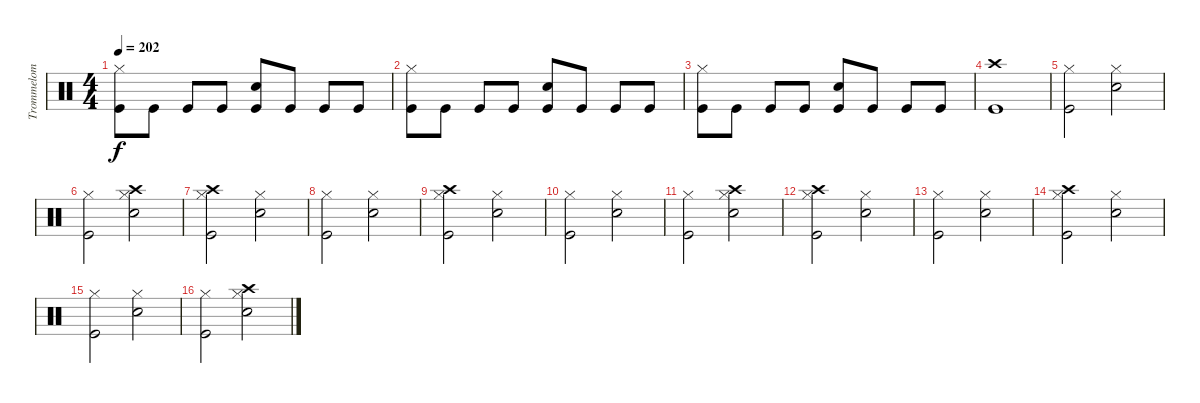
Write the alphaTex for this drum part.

\track ("Trommelom" "Trommelom") {instrument percussion}
\staff {score}
\articulation defaults
\ts (4 4)
\tempo 202
\clef neutral
\ks c
("Hi-Hat (closed)" "Kick (hit)").8{dy f} "Kick (hit)".8 "Kick (hit)".8 "Kick (hit)".8 ("Electric Snare (hit)" "Kick (hit)").8 "Kick (hit)".8 "Kick (hit)".8 "Kick (hit)".8 |
("Hi-Hat (closed)" "Kick (hit)").8 "Kick (hit)".8 "Kick (hit)".8 "Kick (hit)".8 ("Electric Snare (hit)" "Kick (hit)").8 "Kick (hit)".8 "Kick (hit)".8 "Kick (hit)".8 |
("Hi-Hat (closed)" "Kick (hit)").8 "Kick (hit)".8 "Kick (hit)".8 "Kick (hit)".8 ("Electric Snare (hit)" "Kick (hit)").8 "Kick (hit)".8 "Kick (hit)".8 "Kick (hit)".8 |
("Crash high (hit)" "Kick (hit)").1 |
("Kick (hit)" "Hi-Hat (closed)").2 ("Electric Snare (hit)" "Hi-Hat (closed)").2 |
("Kick (hit)" "Hi-Hat (closed)").2 ("Crash high (hit)" "Electric Snare (hit)" "Hi-Hat (closed)").2 |
("Crash high (hit)" "Kick (hit)" "Hi-Hat (closed)").2 ("Electric Snare (hit)" "Hi-Hat (closed)").2 |
("Kick (hit)" "Hi-Hat (closed)").2 ("Electric Snare (hit)" "Hi-Hat (closed)").2 |
("Crash high (hit)" "Kick (hit)" "Hi-Hat (closed)").2 ("Electric Snare (hit)" "Hi-Hat (closed)").2 |
("Kick (hit)" "Hi-Hat (closed)").2 ("Electric Snare (hit)" "Hi-Hat (closed)").2 |
("Kick (hit)" "Hi-Hat (closed)").2 ("Crash high (hit)" "Electric Snare (hit)" "Hi-Hat (closed)").2 |
("Crash high (hit)" "Kick (hit)" "Hi-Hat (closed)").2 ("Electric Snare (hit)" "Hi-Hat (closed)").2 |
("Kick (hit)" "Hi-Hat (closed)").2 ("Electric Snare (hit)" "Hi-Hat (closed)").2 |
("Crash high (hit)" "Kick (hit)" "Hi-Hat (closed)").2 ("Electric Snare (hit)" "Hi-Hat (closed)").2 |
("Kick (hit)" "Hi-Hat (closed)").2 ("Electric Snare (hit)" "Hi-Hat (closed)").2 |
("Kick (hit)" "Hi-Hat (closed)").2 ("Crash high (hit)" "Electric Snare (hit)" "Hi-Hat (closed)").2
